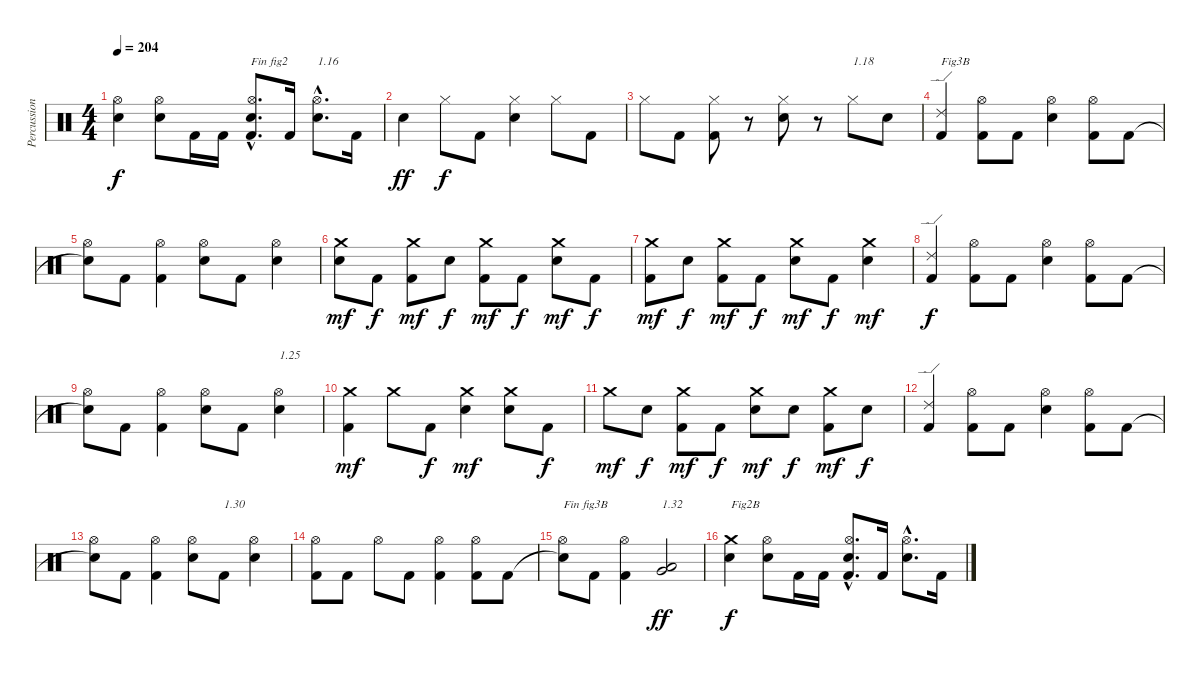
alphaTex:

\track ("Percussions" "Percussion") {instrument percussion}
\staff {score}
\articulation defaults
\ts (4 4)
\tempo 204
\clef neutral
\ks c
("Electric Snare (hit)" "Hi-Hat (open)").4{dy f} ("Electric Snare (hit)" "Hi-Hat (open)").8 "Kick (hit) 2".16 "Kick (hit) 2".16 ("Kick (hit) 2"{hac} "Electric Snare (hit)"{hac} "Hi-Hat (open)"{hac}).8{d txt "Fin fig2"} "Kick (hit) 2".16 ("Electric Snare (hit)"{hac} "Hi-Hat (open)"{hac}).8{d txt "1.16"} "Kick (hit) 2".16 |
"Electric Snare (hit)".4{dy ff} "Hi-Hat (closed)".8{dy f} "Kick (hit) 2".8 ("Electric Snare (hit)" "Hi-Hat (closed)").4 "Hi-Hat (closed)".8 "Kick (hit) 2".8 |
"Hi-Hat (closed)".8 "Kick (hit) 2".8 ("Kick (hit) 2" "Hi-Hat (closed)").8 r.8 ("Electric Snare (hit)" "Hi-Hat (closed)").8 r.8 "Hi-Hat (closed)".8{txt "1.18"} "Electric Snare (hit)".8 |
("Kick (hit) 2" "Ride (edge) 2").4{txt "Fig3B"} ("Kick (hit) 2" "Hi-Hat (open)").8 "Kick (hit) 2".8 ("Electric Snare (hit)" "Hi-Hat (open)").4 ("Kick (hit) 2" "Hi-Hat (open)").8 "Kick (hit) 2".8 |
("Snare (hit)"{t} "Hi-Hat (open)").8 "Kick (hit) 2".8 ("Kick (hit) 2" "Hi-Hat (open)").4 ("Electric Snare (hit)" "Hi-Hat (open)").8 "Kick (hit) 2".8 ("Electric Snare (hit)" "Hi-Hat (open)").4 |
("Electric Snare (hit)" "Crash medium (hit)").8{dy mf} "Kick (hit) 2".8{dy f} ("Kick (hit) 2" "Crash medium (hit)").8{dy mf} "Electric Snare (hit)".8{dy f} ("Kick (hit) 2" "Crash medium (hit)").8{dy mf} "Kick (hit) 2".8{dy f} ("Electric Snare (hit)" "Crash medium (hit)").8{dy mf} "Kick (hit) 2".8{dy f} |
("Kick (hit) 2" "Crash medium (hit)").8{dy mf} "Electric Snare (hit)".8{dy f} ("Kick (hit) 2" "Crash medium (hit)").8{dy mf} "Kick (hit) 2".8{dy f} ("Electric Snare (hit)" "Crash medium (hit)").8{dy mf} "Kick (hit) 2".8{dy f} ("Electric Snare (hit)" "Crash medium (hit)").4{dy mf} |
("Kick (hit) 2" "Ride (edge) 2").4{dy f} ("Kick (hit) 2" "Hi-Hat (open)").8 "Kick (hit) 2".8 ("Electric Snare (hit)" "Hi-Hat (open)").4 ("Kick (hit) 2" "Hi-Hat (open)").8 "Kick (hit) 2".8 |
("Snare (hit)"{t} "Hi-Hat (open)").8 "Kick (hit) 2".8 ("Kick (hit) 2" "Hi-Hat (open)").4 ("Electric Snare (hit)" "Hi-Hat (open)").8 "Kick (hit) 2".8 ("Electric Snare (hit)" "Hi-Hat (open)").4{txt "1.25"} |
("Kick (hit) 2" "Crash medium (hit)").4{dy mf} "Crash medium (hit)".8 "Kick (hit) 2".8{dy f} ("Electric Snare (hit)" "Crash medium (hit)").4{dy mf} ("Electric Snare (hit)" "Crash medium (hit)").8 "Kick (hit) 2".8{dy f} |
"Crash medium (hit)".8{dy mf} "Electric Snare (hit)".8{dy f} ("Kick (hit) 2" "Crash medium (hit)").8{dy mf} "Kick (hit) 2".8{dy f} ("Electric Snare (hit)" "Crash medium (hit)").8{dy mf} "Electric Snare (hit)".8{dy f} ("Kick (hit) 2" "Crash medium (hit)").8{dy mf} "Electric Snare (hit)".8{dy f} |
("Kick (hit) 2" "Ride (edge) 2").4 ("Kick (hit) 2" "Hi-Hat (open)").8 "Kick (hit) 2".8 ("Electric Snare (hit)" "Hi-Hat (open)").4 ("Kick (hit) 2" "Hi-Hat (open)").8 "Kick (hit) 2".8 |
("Snare (hit)"{t} "Hi-Hat (open)").8 "Kick (hit) 2".8 ("Kick (hit) 2" "Hi-Hat (open)").4 ("Electric Snare (hit)" "Hi-Hat (open)").8 "Kick (hit) 2".8{txt "1.30"} ("Electric Snare (hit)" "Hi-Hat (open)").4 |
("Kick (hit) 2" "Hi-Hat (open)").8 "Kick (hit) 2".8 "Hi-Hat (open)".8 "Kick (hit) 2".8 ("Kick (hit) 2" "Hi-Hat (open)").4 ("Kick (hit) 2" "Hi-Hat (open)").8 "Kick (hit) 2".8 |
("Snare (hit)"{t} "Hi-Hat (open)").8{txt "Fin fig3B"} "Kick (hit) 2".8 ("Kick (hit) 2" "Hi-Hat (open)").4 ("Low Floor Tom (hit)" "Very Low Tom (hit)").2{txt "1.32" dy ff} |
("Electric Snare (hit)" "Crash medium (hit)").4{txt "Fig2B" dy f} ("Electric Snare (hit)" "Hi-Hat (open)").8 "Kick (hit) 2".16 "Kick (hit) 2".16 ("Kick (hit) 2"{hac} "Electric Snare (hit)"{hac} "Hi-Hat (open)"{hac}).8{d} "Kick (hit) 2".16 ("Electric Snare (hit)"{hac} "Hi-Hat (open)"{hac}).8{d} "Kick (hit) 2".16
